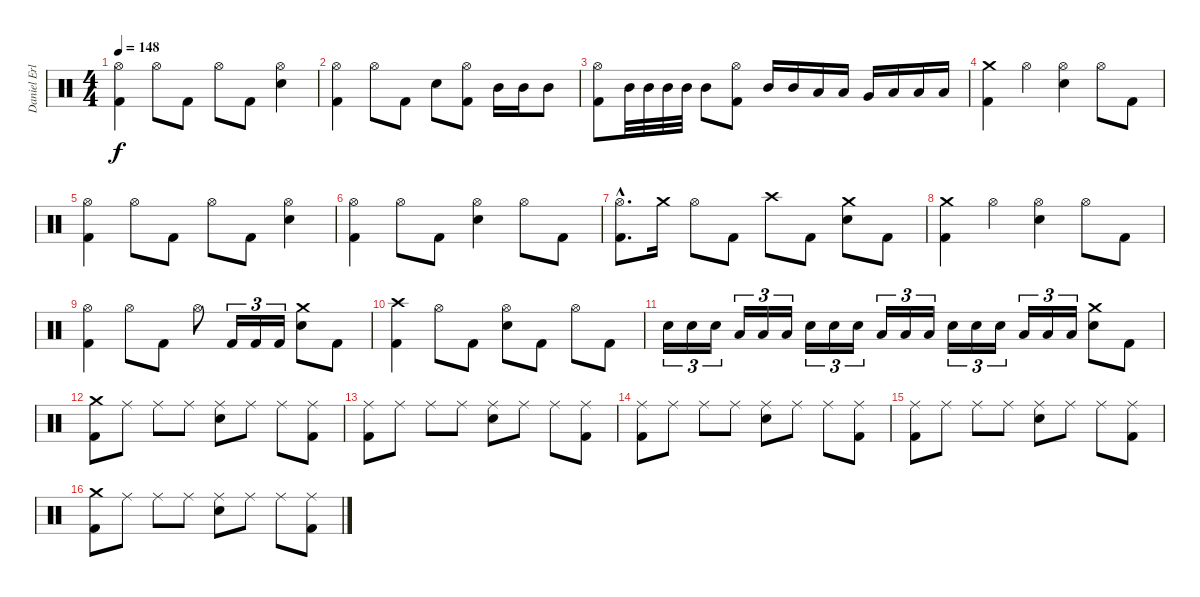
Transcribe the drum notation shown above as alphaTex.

\track ("Daniel Erlandsson (Drums)" "Daniel Erl") {instrument percussion}
\staff {score}
\articulation defaults
\ts (4 4)
\tempo 148
\clef neutral
\ks c
("Hi-Hat (open)" "Kick (hit) 2").4{dy f} "Hi-Hat (open)".8 "Kick (hit) 2".8 "Hi-Hat (open)".8 "Kick (hit) 2".8 ("Hi-Hat (open)" "Snare (hit) 2").4 |
("Hi-Hat (open)" "Kick (hit) 2").4 "Hi-Hat (open)".8 "Kick (hit) 2".8 "Snare (hit) 2".8 ("Hi-Hat (open)" "Kick (hit) 2").8 "Mid Tom (hit)".16 "Mid Tom (hit)".16 "Mid Tom (hit)".8 |
("Hi-Hat (open)" "Kick (hit) 2").8 "Mid Tom (hit)".32 "Mid Tom (hit)".32 "Mid Tom (hit)".32 "Mid Tom (hit)".32 "Mid Tom (hit)".8 ("Hi-Hat (open)" "Kick (hit) 2").8 "Mid Tom (hit)".16 "Mid Tom (hit)".16 "Low Tom (hit)".16 "Low Tom (hit)".16 "Very Low Tom (hit)".16 "Low Floor Tom (hit)".16 "Low Floor Tom (hit)".16 "Low Floor Tom (hit)".16 |
("Crash medium (hit)" "Kick (hit) 2").4 "Hi-Hat (open)".4 ("Hi-Hat (open)" "Snare (hit) 2").4 "Hi-Hat (open)".8 "Kick (hit) 2".8 |
("Hi-Hat (open)" "Kick (hit) 2").4 "Hi-Hat (open)".8 "Kick (hit) 2".8 "Hi-Hat (open)".8 "Kick (hit) 2".8 ("Hi-Hat (open)" "Snare (hit) 2").4 |
("Hi-Hat (open)" "Kick (hit) 2").4 "Hi-Hat (open)".8 "Kick (hit) 2".8 ("Hi-Hat (open)" "Snare (hit) 2").4 "Hi-Hat (open)".8 "Kick (hit) 2".8 |
("Hi-Hat (open)"{hac} "Kick (hit) 2"{hac}).8{d} "Crash medium (hit)".16 "Hi-Hat (open)".8 "Kick (hit) 2".8 "Crash high (hit)".8 "Kick (hit) 2".8 ("Crash medium (hit)" "Snare (hit) 2").8 "Kick (hit) 2".8 |
("Crash medium (hit)" "Kick (hit) 2").4 "Hi-Hat (open)".4 ("Hi-Hat (open)" "Snare (hit) 2").4 "Hi-Hat (open)".8 "Kick (hit) 2".8 |
("Hi-Hat (open)" "Kick (hit) 2").4 "Hi-Hat (open)".8 "Kick (hit) 2".8 "Hi-Hat (open)".8 "Kick (hit) 2".16{tu (3 2)} "Kick (hit) 2".16{tu (3 2)} "Kick (hit) 2".16{tu (3 2)} ("Crash medium (hit)" "Snare (hit) 2").8 "Kick (hit) 2".8 |
("Crash high (hit)" "Kick (hit) 2").4 "Hi-Hat (open)".8 "Kick (hit) 2".8 ("Hi-Hat (open)" "Snare (hit) 2").8 "Kick (hit) 2".8 "Hi-Hat (open)".8 "Kick (hit) 2".8 |
"Snare (hit) 2".16{tu (3 2)} "Snare (hit) 2".16{tu (3 2)} "Snare (hit) 2".16{tu (3 2)} "Low Tom (hit)".16{tu (3 2)} "Low Tom (hit)".16{tu (3 2)} "Low Tom (hit)".16{tu (3 2)} "Snare (hit) 2".16{tu (3 2)} "Snare (hit) 2".16{tu (3 2)} "Snare (hit) 2".16{tu (3 2)} "Low Tom (hit)".16{tu (3 2)} "Low Tom (hit)".16{tu (3 2)} "Low Tom (hit)".16{tu (3 2)} "Snare (hit) 2".16{tu (3 2)} "Snare (hit) 2".16{tu (3 2)} "Snare (hit) 2".16{tu (3 2)} "Low Tom (hit)".16{tu (3 2)} "Low Tom (hit)".16{tu (3 2)} "Low Tom (hit)".16{tu (3 2)} ("Crash medium (hit)" "Snare (hit) 2").8 "Kick (hit) 2".8 |
("Crash medium (hit)" "Kick (hit) 2").8 "Ride (middle)".8 "Ride (middle)".8 "Ride (middle)".8 ("Ride (middle)" "Snare (hit) 2").8 "Ride (middle)".8 "Ride (middle)".8 ("Ride (middle)" "Kick (hit) 2").8 |
("Ride (middle)" "Kick (hit) 2").8 "Ride (middle)".8 "Ride (middle)".8 "Ride (middle)".8 ("Ride (middle)" "Snare (hit) 2").8 "Ride (middle)".8 "Ride (middle)".8 ("Ride (middle)" "Kick (hit) 2").8 |
("Ride (middle)" "Kick (hit) 2").8 "Ride (middle)".8 "Ride (middle)".8 "Ride (middle)".8 ("Ride (middle)" "Snare (hit) 2").8 "Ride (middle)".8 "Ride (middle)".8 ("Ride (middle)" "Kick (hit) 2").8 |
("Ride (middle)" "Kick (hit) 2").8 "Ride (middle)".8 "Ride (middle)".8 "Ride (middle)".8 ("Ride (middle)" "Snare (hit) 2").8 "Ride (middle)".8 "Ride (middle)".8 ("Ride (middle)" "Kick (hit) 2").8 |
("Crash medium (hit)" "Kick (hit) 2").8 "Ride (middle)".8 "Ride (middle)".8 "Ride (middle)".8 ("Ride (middle)" "Snare (hit) 2").8 "Ride (middle)".8 "Ride (middle)".8 ("Ride (middle)" "Kick (hit) 2").8
